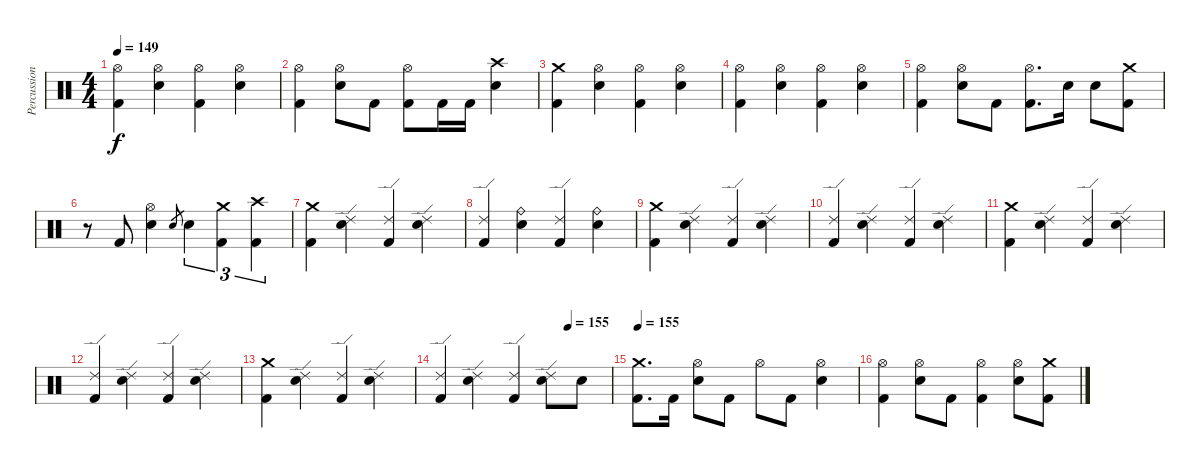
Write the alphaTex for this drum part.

\track ("Percussion" "Percussion") {instrument percussion}
\staff {score}
\articulation defaults
\ts (4 4)
\tempo 149
\clef neutral
\ks c
("Hi-Hat (open)" "Kick (hit) 2").4{dy f} ("Hi-Hat (open)" "Electric Snare (hit)").4 ("Hi-Hat (open)" "Kick (hit) 2").4 ("Hi-Hat (open)" "Electric Snare (hit)").4 |
("Hi-Hat (open)" "Kick (hit) 2").4 ("Hi-Hat (open)" "Electric Snare (hit)").8 "Kick (hit) 2".8 ("Hi-Hat (open)" "Kick (hit) 2").8 "Kick (hit) 2".16 "Kick (hit) 2".16 ("Crash high (hit)" "Electric Snare (hit)").4 |
("Crash medium (hit)" "Kick (hit) 2").4 ("Hi-Hat (open)" "Electric Snare (hit)").4 ("Hi-Hat (open)" "Kick (hit) 2").4 ("Hi-Hat (open)" "Electric Snare (hit)").4 |
("Hi-Hat (open)" "Kick (hit) 2").4 ("Hi-Hat (open)" "Electric Snare (hit)").4 ("Hi-Hat (open)" "Kick (hit) 2").4 ("Hi-Hat (open)" "Electric Snare (hit)").4 |
("Hi-Hat (open)" "Kick (hit) 2").4 ("Hi-Hat (open)" "Electric Snare (hit)").8 "Kick (hit) 2".8 ("Hi-Hat (open)" "Kick (hit) 2").8{d} "Electric Snare (hit)".16 "Electric Snare (hit)".8 ("Crash medium (hit)" "Kick (hit) 2").8 |
r.8 "Kick (hit) 2".8 ("Hi-Hat (open)" "Electric Snare (hit)").4 "Electric Snare (hit)".8{gr} "Electric Snare (hit)".4{tu (3 2)} ("Crash medium (hit)" "Kick (hit) 2").4{tu (3 2)} ("Crash high (hit)" "Kick (hit) 2").4{tu (3 2)} |
("Crash medium (hit)" "Kick (hit) 2").4 ("Ride (edge) 2" "Electric Snare (hit)").4 ("Ride (edge) 2" "Kick (hit) 2").4 ("Ride (edge) 2" "Electric Snare (hit)").4 |
("Ride (edge) 2" "Kick (hit) 2").4 ("Ride (bell)" "Electric Snare (hit)").4 ("Ride (edge) 2" "Kick (hit) 2").4 ("Ride (bell)" "Electric Snare (hit)").4 |
("Crash medium (hit)" "Kick (hit) 2").4 ("Ride (edge) 2" "Electric Snare (hit)").4 ("Ride (edge) 2" "Kick (hit) 2").4 ("Ride (edge) 2" "Electric Snare (hit)").4 |
("Ride (edge) 2" "Kick (hit) 2").4 ("Ride (edge) 2" "Electric Snare (hit)").4 ("Ride (edge) 2" "Kick (hit) 2").4 ("Ride (edge) 2" "Electric Snare (hit)").4 |
("Crash medium (hit)" "Kick (hit) 2").4 ("Ride (edge) 2" "Electric Snare (hit)").4 ("Ride (edge) 2" "Kick (hit) 2").4 ("Ride (edge) 2" "Electric Snare (hit)").4 |
("Ride (edge) 2" "Kick (hit) 2").4 ("Ride (edge) 2" "Electric Snare (hit)").4 ("Ride (edge) 2" "Kick (hit) 2").4 ("Ride (edge) 2" "Electric Snare (hit)").4 |
("Crash medium (hit)" "Kick (hit) 2").4 ("Ride (edge) 2" "Electric Snare (hit)").4 ("Ride (edge) 2" "Kick (hit) 2").4 ("Ride (edge) 2" "Electric Snare (hit)").4 |
\tempo (155 0.75)
("Ride (edge) 2" "Kick (hit) 2").4 ("Ride (edge) 2" "Electric Snare (hit)").4 ("Ride (edge) 2" "Kick (hit) 2").4 ("Ride (edge) 2" "Electric Snare (hit)").8 "Electric Snare (hit)".8 |
\tempo 155
("Crash medium (hit)" "Kick (hit) 2").8{d} "Kick (hit) 2".16 ("Hi-Hat (open)" "Electric Snare (hit)").8 "Kick (hit) 2".8 "Hi-Hat (open)".8 "Kick (hit) 2".8 ("Hi-Hat (open)" "Electric Snare (hit)").4 |
("Hi-Hat (open)" "Kick (hit) 2").4 ("Hi-Hat (open)" "Electric Snare (hit)").8 "Kick (hit) 2".8 ("Hi-Hat (open)" "Kick (hit) 2").4 ("Hi-Hat (open)" "Electric Snare (hit)").8 ("Crash medium (hit)" "Kick (hit) 2").8
